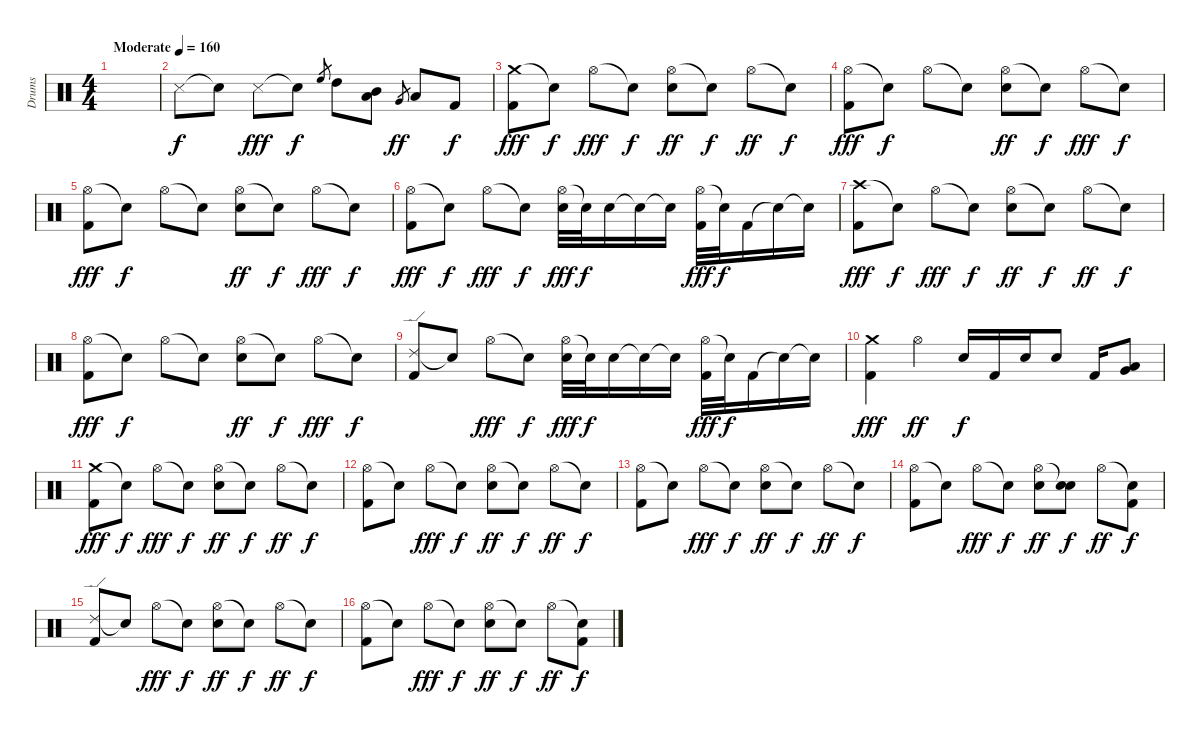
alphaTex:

\track ("Drums" "Drums") {instrument percussion}
\staff {score}
\articulation defaults
\ts (4 4)
\tempo (160 "Moderate")
\clef neutral
\ks c
|
"Snare (side stick) 3".8 "Snare (hit)"{t}.8{dy f} "Snare (side stick) 3".8{dy fff} "Snare (hit)"{t}.8{dy f} "High Floor Tom (hit)".8{gr} "High Tom (hit)".8 ("Mid Tom (hit)" "Low Tom (hit)").8 "Very Low Tom (hit)".8{gr dy ff} "Low Floor Tom (hit)".8 "Kick (hit) 2".8{dy f} |
("Crash medium (hit)" "Kick (hit) 2").8{dy fff} "Snare (hit)"{t}.8{dy f} "Hi-Hat (open)".8{dy fff} "Snare (hit)"{t}.8{dy f} ("Hi-Hat (open)" "Electric Snare (hit)").8{dy ff} "Snare (hit)"{t}.8{dy f} "Hi-Hat (open)".8{dy ff} "Snare (hit)"{t}.8{dy f} |
("Hi-Hat (open)" "Kick (hit) 2").8{dy fff} "Snare (hit)"{t}.8{dy f} "Hi-Hat (open)".8 "Snare (hit)"{t}.8 ("Hi-Hat (open)" "Electric Snare (hit)").8{dy ff} "Snare (hit)"{t}.8{dy f} "Hi-Hat (open)".8{dy fff} "Snare (hit)"{t}.8{dy f} |
("Hi-Hat (open)" "Kick (hit) 2").8{dy fff} "Snare (hit)"{t}.8{dy f} "Hi-Hat (open)".8 "Snare (hit)"{t}.8 ("Hi-Hat (open)" "Electric Snare (hit)").8{dy ff} "Snare (hit)"{t}.8{dy f} "Hi-Hat (open)".8{dy fff} "Snare (hit)"{t}.8{dy f} |
("Hi-Hat (open)" "Kick (hit) 2").8{dy fff} "Snare (hit)"{t}.8{dy f} "Hi-Hat (open)".8{dy fff} "Snare (hit)"{t}.8{dy f} ("Hi-Hat (open)" "Electric Snare (hit)").32{dy fff} "Snare (hit)"{t}.32{dy f} "Electric Snare (hit)".16 "Snare (hit)"{t}.16 "Snare (hit)"{t}.16 ("Hi-Hat (open)" "Kick (hit) 2").32{dy fff} "Snare (hit)"{t}.32{dy f} "Kick (hit) 2".16 "Snare (hit)"{t}.16 "Snare (hit)"{t}.16 |
("Crash high (hit)" "Kick (hit) 2").8{dy fff} "Snare (hit)"{t}.8{dy f} "Hi-Hat (open)".8{dy fff} "Snare (hit)"{t}.8{dy f} ("Hi-Hat (open)" "Electric Snare (hit)").8{dy ff} "Snare (hit)"{t}.8{dy f} "Hi-Hat (open)".8{dy ff} "Snare (hit)"{t}.8{dy f} |
("Hi-Hat (open)" "Kick (hit) 2").8{dy fff} "Snare (hit)"{t}.8{dy f} "Hi-Hat (open)".8 "Snare (hit)"{t}.8 ("Hi-Hat (open)" "Electric Snare (hit)").8{dy ff} "Snare (hit)"{t}.8{dy f} "Hi-Hat (open)".8{dy fff} "Snare (hit)"{t}.8{dy f} |
("Ride (edge) 2" "Kick (hit) 2").8 "Snare (hit)"{t}.8 "Hi-Hat (open)".8{dy fff} "Snare (hit)"{t}.8{dy f} ("Hi-Hat (open)" "Electric Snare (hit)").32{dy fff} "Snare (hit)"{t}.32{dy f} "Electric Snare (hit)".16 "Snare (hit)"{t}.16 "Snare (hit)"{t}.16 ("Hi-Hat (open)" "Kick (hit) 2").32{dy fff} "Snare (hit)"{t}.32{dy f} "Kick (hit) 2".16 "Snare (hit)"{t}.16 "Snare (hit)"{t}.16 |
("Crash medium (hit)" "Kick (hit) 2").4{dy fff} "Hi-Hat (open)".4{dy ff} "Snare (hit) 2".16{dy f} "Kick (hit) 2".16 "Snare (hit) 2".16 "Snare (hit) 2".8 "Kick (hit) 2".16 ("Very Low Tom (hit)" "Low Floor Tom (hit)").8 |
("Crash medium (hit)" "Kick (hit) 2").8{dy fff} "Snare (hit)"{t}.8{dy f} "Hi-Hat (open)".8{dy fff} "Snare (hit)"{t}.8{dy f} ("Hi-Hat (open)" "Electric Snare (hit)").8{dy ff} "Snare (hit)"{t}.8{dy f} "Hi-Hat (open)".8{dy ff} "Snare (hit)"{t}.8{dy f} |
("Hi-Hat (open)" "Kick (hit) 2").8 "Snare (hit)"{t}.8 "Hi-Hat (open)".8{dy fff} "Snare (hit)"{t}.8{dy f} ("Hi-Hat (open)" "Electric Snare (hit)").8{dy ff} "Snare (hit)"{t}.8{dy f} "Hi-Hat (open)".8{dy ff} "Snare (hit)"{t}.8{dy f} |
("Hi-Hat (open)" "Kick (hit) 2").8 "Snare (hit)"{t}.8 "Hi-Hat (open)".8{dy fff} "Snare (hit)"{t}.8{dy f} ("Hi-Hat (open)" "Electric Snare (hit)").8{dy ff} "Snare (hit)"{t}.8{dy f} "Hi-Hat (open)".8{dy ff} "Snare (hit)"{t}.8{dy f} |
("Hi-Hat (open)" "Kick (hit) 2").8 "Snare (hit)"{t}.8 "Hi-Hat (open)".8{dy fff} "Snare (hit)"{t}.8{dy f} ("Hi-Hat (open)" "Electric Snare (hit)").8{dy ff} ("Snare (hit)"{t} "Electric Snare (hit)").8{dy f} "Hi-Hat (open)".8{dy ff} ("Snare (hit)"{t} "Kick (hit) 2").8{dy f} |
("Ride (edge) 2" "Kick (hit) 2").8 "Snare (hit)"{t}.8 "Hi-Hat (open)".8{dy fff} "Snare (hit)"{t}.8{dy f} ("Hi-Hat (open)" "Electric Snare (hit)").8{dy ff} "Snare (hit)"{t}.8{dy f} "Hi-Hat (open)".8{dy ff} "Snare (hit)"{t}.8{dy f} |
("Hi-Hat (open)" "Kick (hit) 2").8 "Snare (hit)"{t}.8 "Hi-Hat (open)".8{dy fff} "Snare (hit)"{t}.8{dy f} ("Hi-Hat (open)" "Electric Snare (hit)").8{dy ff} "Snare (hit)"{t}.8{dy f} "Hi-Hat (open)".8{dy ff} ("Snare (hit)"{t} "Kick (hit) 2").8{dy f}
